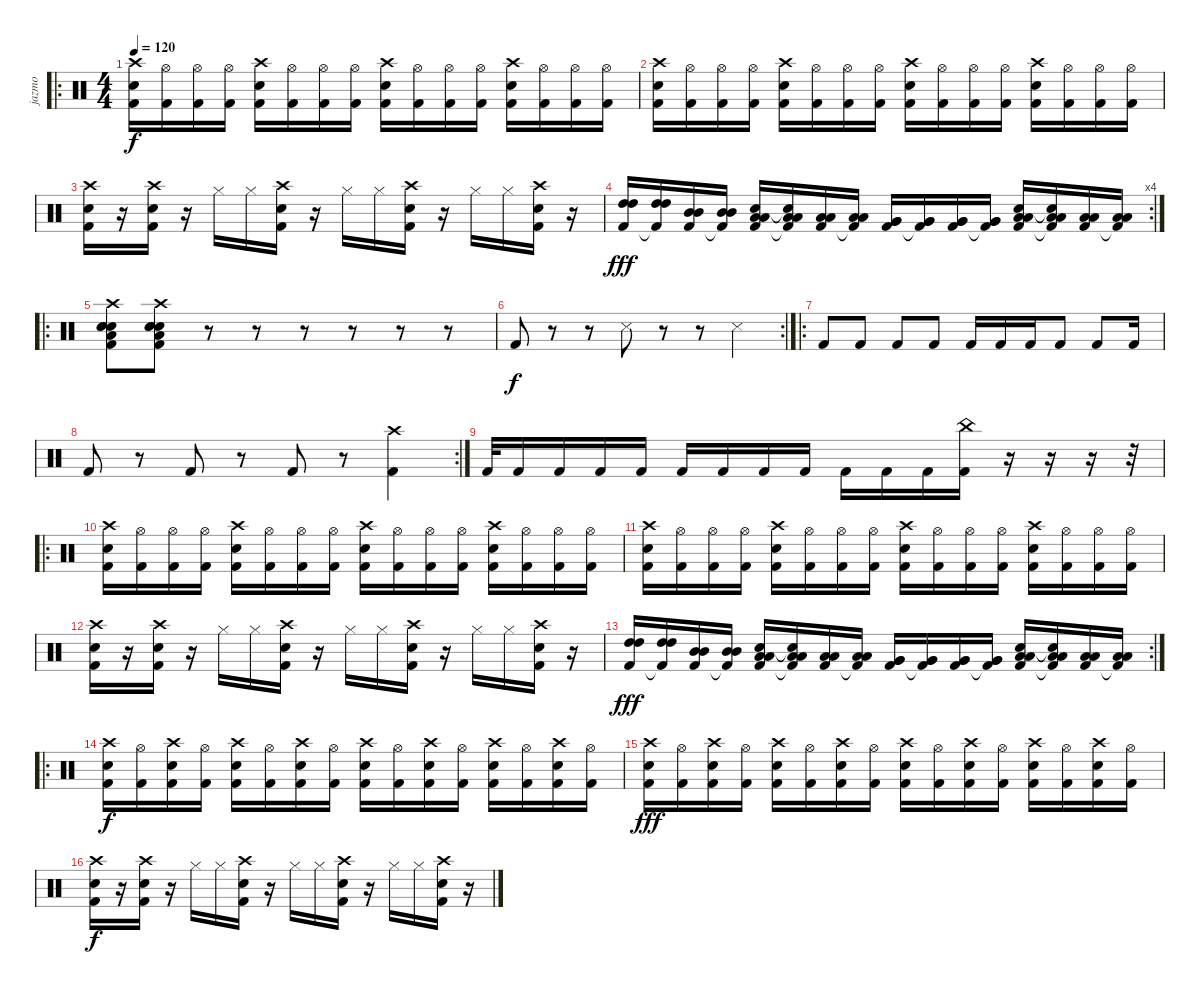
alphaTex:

\track ("jazmo" "jazmo") {instrument percussion}
\staff {score}
\articulation defaults
\ro
\ts (4 4)
\tempo 120
\clef neutral
\ks c
("Crash high (hit)" "Electric Snare (hit)" "Kick (hit) 2").16{dy f} ("Hi-Hat (open)" "Kick (hit) 2").16 ("Hi-Hat (open)" "Kick (hit) 2").16 ("Hi-Hat (open)" "Kick (hit) 2").16 ("Crash high (hit)" "Electric Snare (hit)" "Kick (hit) 2").16 ("Hi-Hat (open)" "Kick (hit) 2").16 ("Hi-Hat (open)" "Kick (hit) 2").16 ("Hi-Hat (open)" "Kick (hit) 2").16 ("Crash high (hit)" "Electric Snare (hit)" "Kick (hit) 2").16 ("Hi-Hat (open)" "Kick (hit) 2").16 ("Hi-Hat (open)" "Kick (hit) 2").16 ("Hi-Hat (open)" "Kick (hit) 2").16 ("Crash high (hit)" "Electric Snare (hit)" "Kick (hit) 2").16 ("Hi-Hat (open)" "Kick (hit) 2").16 ("Hi-Hat (open)" "Kick (hit) 2").16 ("Hi-Hat (open)" "Kick (hit) 2").16 |
("Crash high (hit)" "Electric Snare (hit)" "Kick (hit) 2").16 ("Hi-Hat (open)" "Kick (hit) 2").16 ("Hi-Hat (open)" "Kick (hit) 2").16 ("Hi-Hat (open)" "Kick (hit) 2").16 ("Crash high (hit)" "Electric Snare (hit)" "Kick (hit) 2").16 ("Hi-Hat (open)" "Kick (hit) 2").16 ("Hi-Hat (open)" "Kick (hit) 2").16 ("Hi-Hat (open)" "Kick (hit) 2").16 ("Crash high (hit)" "Electric Snare (hit)" "Kick (hit) 2").16 ("Hi-Hat (open)" "Kick (hit) 2").16 ("Hi-Hat (open)" "Kick (hit) 2").16 ("Hi-Hat (open)" "Kick (hit) 2").16 ("Crash high (hit)" "Electric Snare (hit)" "Kick (hit) 2").16 ("Hi-Hat (open)" "Kick (hit) 2").16 ("Hi-Hat (open)" "Kick (hit) 2").16 ("Hi-Hat (open)" "Kick (hit) 2").16 |
("Crash high (hit)" "Electric Snare (hit)" "Kick (hit) 2").16 r.16 ("Crash high (hit)" "Electric Snare (hit)" "Kick (hit) 2").16 r.16 "Hi-Hat (closed)".16 "Hi-Hat (closed)".16 ("Crash high (hit)" "Electric Snare (hit)" "Kick (hit) 2").16 r.16 "Hi-Hat (closed)".16 "Hi-Hat (closed)".16 ("Crash high (hit)" "Electric Snare (hit)" "Kick (hit) 2").16 r.16 "Hi-Hat (closed)".16 "Hi-Hat (closed)".16 ("Crash high (hit)" "Electric Snare (hit)" "Kick (hit) 2").16 r.16 |
\rc 4
("High Tom (hit)" "High Tom (hit)" "Kick (hit) 2").16{dy fff} ("High Tom (hit)" "High Tom (hit)" "Kick (hit) 2"{t}).16 ("Mid Tom (hit)" "Mid Tom (hit)" "Kick (hit) 2").16 ("Mid Tom (hit)" "Mid Tom (hit)" "Kick (hit) 2"{t}).16 ("Low Tom (hit)" "Low Tom (hit)" "Electric Snare (hit)" "Kick (hit) 2").16 ("Low Tom (hit)" "Low Tom (hit)" "Snare (hit)"{t} "Kick (hit) 2"{t}).16 ("Low Tom (hit)" "Low Tom (hit)" "Kick (hit) 2").16 ("Low Tom (hit)" "Low Tom (hit)" "Kick (hit) 2"{t}).16 ("Very Low Tom (hit)" "Very Low Tom (hit)" "Kick (hit) 2").16 ("Very Low Tom (hit)" "Very Low Tom (hit)" "Kick (hit) 2"{t}).16 ("Very Low Tom (hit)" "Very Low Tom (hit)" "Kick (hit) 2").16 ("Very Low Tom (hit)" "Very Low Tom (hit)" "Kick (hit) 2"{t}).16 ("Low Floor Tom (hit)" "Low Floor Tom (hit)" "Electric Snare (hit)" "Kick (hit) 2").16 ("Low Floor Tom (hit)" "Low Floor Tom (hit)" "Electric Snare (hit)"{t} "Kick (hit) 2"{t}).16 ("Low Floor Tom (hit)" "Low Floor Tom (hit)" "Kick (hit) 2").16 ("Low Floor Tom (hit)" "Low Floor Tom (hit)" "Kick (hit) 2"{t}).16 |
\ro
("Crash high (hit)" "Low Floor Tom (hit)" "Electric Snare (hit)" "Electric Snare (hit)" "Kick (hit) 2" "Electric Snare (hit)").8 ("Crash high (hit)" "Low Floor Tom (hit)" "Electric Snare (hit)" "Electric Snare (hit)" "Kick (hit) 2" "Electric Snare (hit)").8 r.8 r.8 r.8 r.8 r.8 r.8 |
\rc 2 "Kick (hit) 2".8{dy f}
r.8 r.8 "Snare (side stick) 3".8 r.8 r.8 "Snare (side stick) 3".4 |
\ro "Kick (hit) 2".8 "Kick (hit) 2".8 "Kick (hit) 2".8 "Kick (hit) 2".8 "Kick (hit) 2".16 "Kick (hit) 2".16 "Kick (hit) 2".16 "Kick (hit) 2".8 "Kick (hit) 2".8 "Kick (hit) 2".16
|
\rc 2 "Kick (hit) 2".8
r.8 "Kick (hit) 2".8 r.8 "Kick (hit) 2".8 r.8 ("Crash high (hit)" "Kick (hit) 2").4 |
"Kick (hit) 2".32 "Kick (hit) 2".16 "Kick (hit) 2".16 "Kick (hit) 2".16 "Kick (hit) 2".16 "Kick (hit) 2".16 "Kick (hit) 2".16 "Kick (hit) 2".16 "Kick (hit) 2".16 "Kick (hit) 2".16 "Kick (hit) 2".16 "Kick (hit) 2".16 ("China (hit)" "Kick (hit) 2").16 r.16 r.16 r.16 r.32 |
\ro
("Crash high (hit)" "Electric Snare (hit)" "Kick (hit) 2").16 ("Hi-Hat (open)" "Kick (hit) 2").16 ("Hi-Hat (open)" "Kick (hit) 2").16 ("Hi-Hat (open)" "Kick (hit) 2").16 ("Crash high (hit)" "Electric Snare (hit)" "Kick (hit) 2").16 ("Hi-Hat (open)" "Kick (hit) 2").16 ("Hi-Hat (open)" "Kick (hit) 2").16 ("Hi-Hat (open)" "Kick (hit) 2").16 ("Crash high (hit)" "Electric Snare (hit)" "Kick (hit) 2").16 ("Hi-Hat (open)" "Kick (hit) 2").16 ("Hi-Hat (open)" "Kick (hit) 2").16 ("Hi-Hat (open)" "Kick (hit) 2").16 ("Crash high (hit)" "Electric Snare (hit)" "Kick (hit) 2").16 ("Hi-Hat (open)" "Kick (hit) 2").16 ("Hi-Hat (open)" "Kick (hit) 2").16 ("Hi-Hat (open)" "Kick (hit) 2").16 |
("Crash high (hit)" "Electric Snare (hit)" "Kick (hit) 2").16 ("Hi-Hat (open)" "Kick (hit) 2").16 ("Hi-Hat (open)" "Kick (hit) 2").16 ("Hi-Hat (open)" "Kick (hit) 2").16 ("Crash high (hit)" "Electric Snare (hit)" "Kick (hit) 2").16 ("Hi-Hat (open)" "Kick (hit) 2").16 ("Hi-Hat (open)" "Kick (hit) 2").16 ("Hi-Hat (open)" "Kick (hit) 2").16 ("Crash high (hit)" "Electric Snare (hit)" "Kick (hit) 2").16 ("Hi-Hat (open)" "Kick (hit) 2").16 ("Hi-Hat (open)" "Kick (hit) 2").16 ("Hi-Hat (open)" "Kick (hit) 2").16 ("Crash high (hit)" "Electric Snare (hit)" "Kick (hit) 2").16 ("Hi-Hat (open)" "Kick (hit) 2").16 ("Hi-Hat (open)" "Kick (hit) 2").16 ("Hi-Hat (open)" "Kick (hit) 2").16 |
("Crash high (hit)" "Electric Snare (hit)" "Kick (hit) 2").16 r.16 ("Crash high (hit)" "Electric Snare (hit)" "Kick (hit) 2").16 r.16 "Hi-Hat (closed)".16 "Hi-Hat (closed)".16 ("Crash high (hit)" "Electric Snare (hit)" "Kick (hit) 2").16 r.16 "Hi-Hat (closed)".16 "Hi-Hat (closed)".16 ("Crash high (hit)" "Electric Snare (hit)" "Kick (hit) 2").16 r.16 "Hi-Hat (closed)".16 "Hi-Hat (closed)".16 ("Crash high (hit)" "Electric Snare (hit)" "Kick (hit) 2").16 r.16 |
\rc 2
("High Tom (hit)" "High Tom (hit)" "Kick (hit) 2").16{dy fff} ("High Tom (hit)" "High Tom (hit)" "Kick (hit) 2"{t}).16 ("Mid Tom (hit)" "Mid Tom (hit)" "Kick (hit) 2").16 ("Mid Tom (hit)" "Mid Tom (hit)" "Kick (hit) 2"{t}).16 ("Low Tom (hit)" "Low Tom (hit)" "Electric Snare (hit)" "Kick (hit) 2").16 ("Low Tom (hit)" "Low Tom (hit)" "Snare (hit)"{t} "Kick (hit) 2"{t}).16 ("Low Tom (hit)" "Low Tom (hit)" "Kick (hit) 2").16 ("Low Tom (hit)" "Low Tom (hit)" "Kick (hit) 2"{t}).16 ("Very Low Tom (hit)" "Very Low Tom (hit)" "Kick (hit) 2").16 ("Very Low Tom (hit)" "Very Low Tom (hit)" "Kick (hit) 2"{t}).16 ("Very Low Tom (hit)" "Very Low Tom (hit)" "Kick (hit) 2").16 ("Very Low Tom (hit)" "Very Low Tom (hit)" "Kick (hit) 2"{t}).16 ("Low Floor Tom (hit)" "Low Floor Tom (hit)" "Electric Snare (hit)" "Kick (hit) 2").16 ("Low Floor Tom (hit)" "Low Floor Tom (hit)" "Electric Snare (hit)"{t} "Kick (hit) 2"{t}).16 ("Low Floor Tom (hit)" "Low Floor Tom (hit)" "Kick (hit) 2").16 ("Low Floor Tom (hit)" "Low Floor Tom (hit)" "Kick (hit) 2"{t}).16 |
\ro
("Crash high (hit)" "Electric Snare (hit)" "Kick (hit) 2").16{dy f} ("Hi-Hat (open)" "Kick (hit) 2").16 ("Crash high (hit)" "Electric Snare (hit)" "Kick (hit) 2").16 ("Hi-Hat (open)" "Kick (hit) 2").16 ("Crash high (hit)" "Electric Snare (hit)" "Kick (hit) 2").16 ("Hi-Hat (open)" "Kick (hit) 2").16 ("Crash high (hit)" "Electric Snare (hit)" "Kick (hit) 2").16 ("Hi-Hat (open)" "Kick (hit) 2").16 ("Crash high (hit)" "Electric Snare (hit)" "Kick (hit) 2").16 ("Hi-Hat (open)" "Kick (hit) 2").16 ("Crash high (hit)" "Electric Snare (hit)" "Kick (hit) 2").16 ("Hi-Hat (open)" "Kick (hit) 2").16 ("Crash high (hit)" "Electric Snare (hit)" "Kick (hit) 2").16 ("Hi-Hat (open)" "Kick (hit) 2").16 ("Crash high (hit)" "Electric Snare (hit)" "Kick (hit) 2").16 ("Hi-Hat (open)" "Kick (hit) 2").16 |
("Crash high (hit)" "Electric Snare (hit)" "Kick (hit) 2").16{dy fff} ("Hi-Hat (open)" "Kick (hit) 2").16 ("Crash high (hit)" "Electric Snare (hit)" "Kick (hit) 2").16 ("Hi-Hat (open)" "Kick (hit) 2").16 ("Crash high (hit)" "Electric Snare (hit)" "Kick (hit) 2").16 ("Hi-Hat (open)" "Kick (hit) 2").16 ("Crash high (hit)" "Electric Snare (hit)" "Kick (hit) 2").16 ("Hi-Hat (open)" "Kick (hit) 2").16 ("Crash high (hit)" "Electric Snare (hit)" "Kick (hit) 2").16 ("Hi-Hat (open)" "Kick (hit) 2").16 ("Crash high (hit)" "Electric Snare (hit)" "Kick (hit) 2").16 ("Hi-Hat (open)" "Kick (hit) 2").16 ("Crash high (hit)" "Electric Snare (hit)" "Kick (hit) 2").16 ("Hi-Hat (open)" "Kick (hit) 2").16 ("Crash high (hit)" "Electric Snare (hit)" "Kick (hit) 2").16 ("Hi-Hat (open)" "Kick (hit) 2").16 |
("Crash high (hit)" "Electric Snare (hit)" "Kick (hit) 2").16{dy f} r.16 ("Crash high (hit)" "Electric Snare (hit)" "Kick (hit) 2").16 r.16 "Hi-Hat (closed)".16 "Hi-Hat (closed)".16 ("Crash high (hit)" "Electric Snare (hit)" "Kick (hit) 2").16 r.16 "Hi-Hat (closed)".16 "Hi-Hat (closed)".16 ("Crash high (hit)" "Electric Snare (hit)" "Kick (hit) 2").16 r.16 "Hi-Hat (closed)".16 "Hi-Hat (closed)".16 ("Crash high (hit)" "Electric Snare (hit)" "Kick (hit) 2").16 r.16
